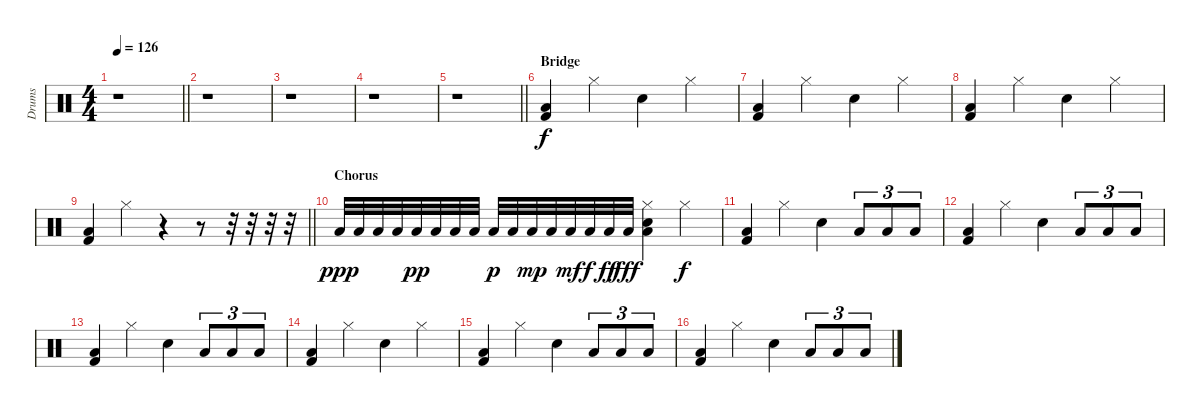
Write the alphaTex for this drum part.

\track ("Drums" "Drums") {instrument percussion}
\staff {score}
\articulation defaults
\ts (4 4)
\tempo 126
\clef neutral
\barLineRight lightlight
\ks c
r.1{dy f} |
r.1 |
r.1 |
r.1 |
\barLineRight lightlight
r.1 |
\section ("" "Bridge")
("Low Floor Tom (hit)" "Kick (hit) 2").4 "Hi-Hat (closed)".4 "Electric Snare (hit)".4 "Hi-Hat (closed)".4 |
("Low Floor Tom (hit)" "Kick (hit) 2").4 "Hi-Hat (closed)".4 "Electric Snare (hit)".4 "Hi-Hat (closed)".4 |
("Low Floor Tom (hit)" "Kick (hit) 2").4 "Hi-Hat (closed)".4 "Electric Snare (hit)".4 "Hi-Hat (closed)".4 |
\barLineRight lightlight
("Low Floor Tom (hit)" "Kick (hit) 2").4 "Hi-Hat (closed)".4 r.4 r.8 r.32 r.32 r.32 r.32 |
\section ("" "Chorus")
"Low Floor Tom (hit)".32{dy ppp} "Low Floor Tom (hit)".32 "Low Floor Tom (hit)".32 "Low Floor Tom (hit)".32 "Low Floor Tom (hit)".32{dy pp} "Low Floor Tom (hit)".32 "Low Floor Tom (hit)".32 "Low Floor Tom (hit)".32 "Low Floor Tom (hit)".32{dy p} "Low Floor Tom (hit)".32 "Low Floor Tom (hit)".32{dy mp} "Low Floor Tom (hit)".32 "Low Floor Tom (hit)".32{dy mf} "Low Floor Tom (hit)".32{dy f} "Low Floor Tom (hit)".32{dy ff} "Low Floor Tom (hit)".32{dy fff} ("Hi-Hat (closed)" "Electric Snare (hit)" "Low Floor Tom (hit)").4 "Hi-Hat (closed)".4{dy f} |
("Low Floor Tom (hit)" "Kick (hit) 2").4 "Hi-Hat (closed)".4 "Electric Snare (hit)".4 "Low Floor Tom (hit)".8{tu (3 2)} "Low Floor Tom (hit)".8{tu (3 2)} "Low Floor Tom (hit)".8{tu (3 2)} |
("Low Floor Tom (hit)" "Kick (hit) 2").4 "Hi-Hat (closed)".4 "Electric Snare (hit)".4 "Low Floor Tom (hit)".8{tu (3 2)} "Low Floor Tom (hit)".8{tu (3 2)} "Low Floor Tom (hit)".8{tu (3 2)} |
("Low Floor Tom (hit)" "Kick (hit) 2").4 "Hi-Hat (closed)".4 "Electric Snare (hit)".4 "Low Floor Tom (hit)".8{tu (3 2)} "Low Floor Tom (hit)".8{tu (3 2)} "Low Floor Tom (hit)".8{tu (3 2)} |
("Low Floor Tom (hit)" "Kick (hit) 2").4 "Hi-Hat (closed)".4 "Electric Snare (hit)".4 "Hi-Hat (closed)".4 |
("Low Floor Tom (hit)" "Kick (hit) 2").4 "Hi-Hat (closed)".4 "Electric Snare (hit)".4 "Low Floor Tom (hit)".8{tu (3 2)} "Low Floor Tom (hit)".8{tu (3 2)} "Low Floor Tom (hit)".8{tu (3 2)} |
("Low Floor Tom (hit)" "Kick (hit) 2").4 "Hi-Hat (closed)".4 "Electric Snare (hit)".4 "Low Floor Tom (hit)".8{tu (3 2)} "Low Floor Tom (hit)".8{tu (3 2)} "Low Floor Tom (hit)".8{tu (3 2)}
